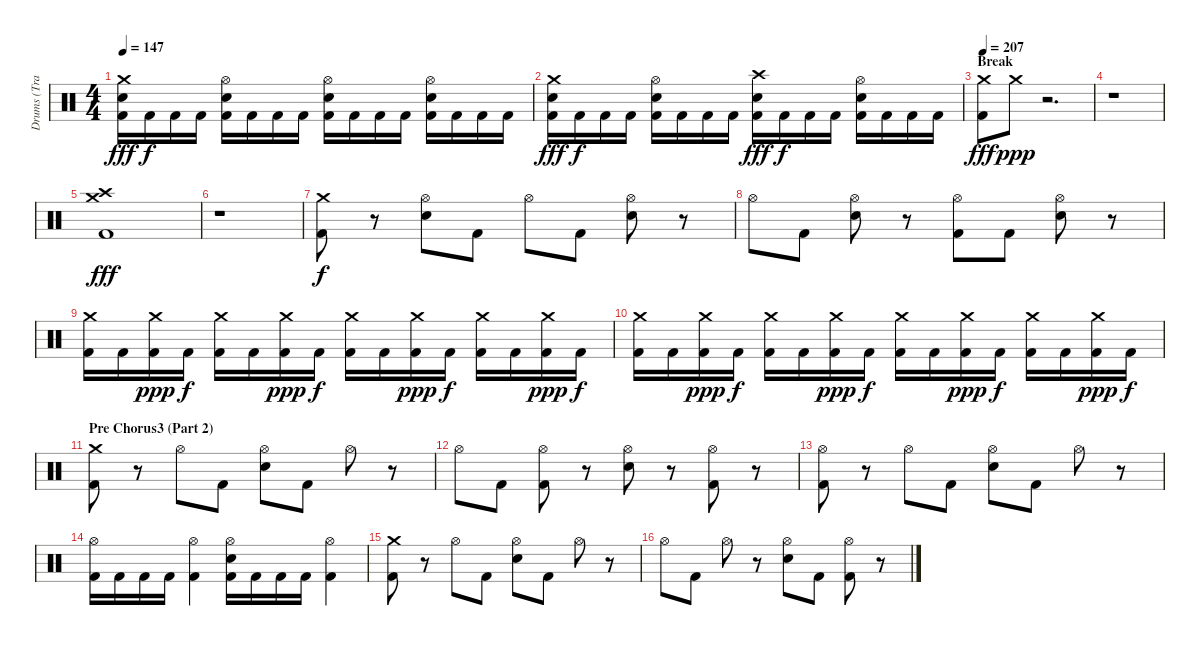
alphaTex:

\track ("Drums (Travis)" "Drums (Tra") {instrument percussion}
\staff {score}
\articulation defaults
\ts (4 4)
\tempo 147
\clef neutral
\ks c
("Crash medium (hit)" "Snare (hit) 2" "Kick (hit) 2").16{dy fff} "Kick (hit) 2".16{dy f} "Kick (hit) 2".16 "Kick (hit) 2".16 ("Hi-Hat (open)" "Snare (hit) 2" "Kick (hit) 2").16 "Kick (hit) 2".16 "Kick (hit) 2".16 "Kick (hit) 2".16 ("Hi-Hat (open)" "Snare (hit) 2" "Kick (hit) 2").16 "Kick (hit) 2".16 "Kick (hit) 2".16 "Kick (hit) 2".16 ("Hi-Hat (open)" "Snare (hit) 2" "Kick (hit) 2").16 "Kick (hit) 2".16 "Kick (hit) 2".16 "Kick (hit) 2".16 |
("Crash medium (hit)" "Snare (hit) 2" "Kick (hit) 2").16{dy fff} "Kick (hit) 2".16{dy f} "Kick (hit) 2".16 "Kick (hit) 2".16 ("Hi-Hat (open)" "Snare (hit) 2" "Kick (hit) 2").16 "Kick (hit) 2".16 "Kick (hit) 2".16 "Kick (hit) 2".16 ("Crash high (hit)" "Snare (hit) 2" "Kick (hit) 2").16{dy fff} "Kick (hit) 2".16{dy f} "Kick (hit) 2".16 "Kick (hit) 2".16 ("Hi-Hat (open)" "Snare (hit) 2" "Kick (hit) 2").16 "Kick (hit) 2".16 "Kick (hit) 2".16 "Kick (hit) 2".16 |
\section ("" "Break")
\tempo 207
("Crash medium (hit)" "Kick (hit) 2").8{dy fff} "Crash medium (hit)".8{dy ppp} r.2{d} |
r.1 |
("Crash medium (hit)" "Crash high (hit)" "Kick (hit) 2").1{dy fff} |
r.1 |
("Crash medium (hit)" "Kick (hit) 2").8{dy f} r.8 ("Hi-Hat (open)" "Snare (hit) 2").8 "Kick (hit) 2".8 "Hi-Hat (open)".8 "Kick (hit) 2".8 ("Hi-Hat (open)" "Snare (hit) 2").8 r.8 |
"Hi-Hat (open)".8 "Kick (hit) 2".8 ("Hi-Hat (open)" "Snare (hit) 2").8 r.8 ("Hi-Hat (open)" "Kick (hit) 2").8 "Kick (hit) 2".8 ("Hi-Hat (open)" "Snare (hit) 2").8 r.8 |
("Crash medium (hit)" "Kick (hit) 2").16 "Kick (hit) 2".16 ("Crash medium (hit)" "Kick (hit) 2").16{dy ppp} "Kick (hit) 2".16{dy f} ("Crash medium (hit)" "Kick (hit) 2").16 "Kick (hit) 2".16 ("Crash medium (hit)" "Kick (hit) 2").16{dy ppp} "Kick (hit) 2".16{dy f} ("Crash medium (hit)" "Kick (hit) 2").16 "Kick (hit) 2".16 ("Crash medium (hit)" "Kick (hit) 2").16{dy ppp} "Kick (hit) 2".16{dy f} ("Crash medium (hit)" "Kick (hit) 2").16 "Kick (hit) 2".16 ("Crash medium (hit)" "Kick (hit) 2").16{dy ppp} "Kick (hit) 2".16{dy f} |
("Crash medium (hit)" "Kick (hit) 2").16 "Kick (hit) 2".16 ("Crash medium (hit)" "Kick (hit) 2").16{dy ppp} "Kick (hit) 2".16{dy f} ("Crash medium (hit)" "Kick (hit) 2").16 "Kick (hit) 2".16 ("Crash medium (hit)" "Kick (hit) 2").16{dy ppp} "Kick (hit) 2".16{dy f} ("Crash medium (hit)" "Kick (hit) 2").16 "Kick (hit) 2".16 ("Crash medium (hit)" "Kick (hit) 2").16{dy ppp} "Kick (hit) 2".16{dy f} ("Crash medium (hit)" "Kick (hit) 2").16 "Kick (hit) 2".16 ("Crash medium (hit)" "Kick (hit) 2").16{dy ppp} "Kick (hit) 2".16{dy f} |
\section ("" "Pre Chorus3 (Part 2)")
("Crash medium (hit)" "Kick (hit) 2").8 r.8 "Hi-Hat (open)".8 "Kick (hit) 2".8 ("Hi-Hat (open)" "Snare (hit) 2").8 "Kick (hit) 2".8 "Hi-Hat (open)".8 r.8 |
"Hi-Hat (open)".8 "Kick (hit) 2".8 ("Hi-Hat (open)" "Kick (hit) 2").8 r.8 ("Hi-Hat (open)" "Snare (hit) 2").8 r.8 ("Hi-Hat (open)" "Kick (hit) 2").8 r.8 |
("Hi-Hat (open)" "Kick (hit) 2").8 r.8 "Hi-Hat (open)".8 "Kick (hit) 2".8 ("Hi-Hat (open)" "Snare (hit) 2").8 "Kick (hit) 2".8 "Hi-Hat (open)".8 r.8 |
("Hi-Hat (open)" "Kick (hit) 2").16 "Kick (hit) 2".16 "Kick (hit) 2".16 "Kick (hit) 2".16 ("Hi-Hat (open)" "Kick (hit) 2").4 ("Hi-Hat (open)" "Snare (hit) 2" "Kick (hit) 2").16 "Kick (hit) 2".16 "Kick (hit) 2".16 "Kick (hit) 2".16 ("Hi-Hat (open)" "Kick (hit) 2").4 |
("Crash medium (hit)" "Kick (hit) 2").8 r.8 "Hi-Hat (open)".8 "Kick (hit) 2".8 ("Hi-Hat (open)" "Snare (hit) 2").8 "Kick (hit) 2".8 "Hi-Hat (open)".8 r.8 |
"Hi-Hat (open)".8 "Kick (hit) 2".8 "Hi-Hat (open)".8 r.8 ("Hi-Hat (open)" "Snare (hit) 2").8 "Kick (hit) 2".8 ("Hi-Hat (open)" "Kick (hit) 2").8 r.8
